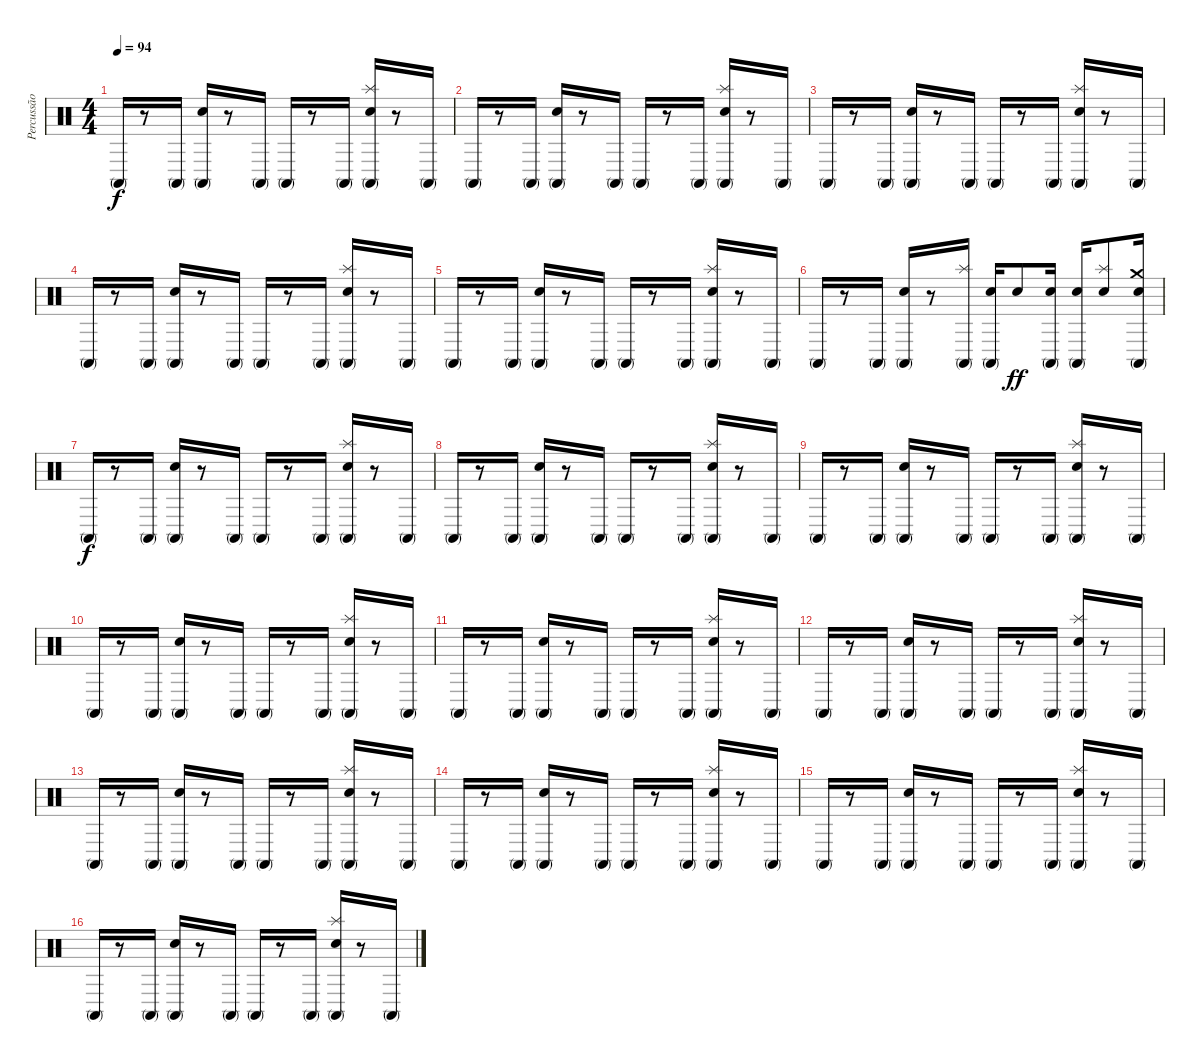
\track ("Percussão" "Percussão") {instrument percussion}
\staff {score}
\articulation defaults
\ts (4 4)
\tempo 94
\clef neutral
\ks c "Conga high (mute)".16{dy f}
r.8 "Conga high (mute)".16 ("Conga high (mute)" "Hand Clap (hit)").16 r.8 "Conga high (mute)".16 "Conga high (mute)".16 r.8 "Conga high (mute)".16 ("Conga high (mute)" "Splash (hit)" "Hand Clap (hit)").16 r.8 "Conga high (mute)".16 |
"Conga high (mute)".16 r.8 "Conga high (mute)".16 ("Conga high (mute)" "Hand Clap (hit)").16 r.8 "Conga high (mute)".16 "Conga high (mute)".16 r.8 "Conga high (mute)".16 ("Conga high (mute)" "Splash (hit)" "Hand Clap (hit)").16 r.8 "Conga high (mute)".16 |
"Conga high (mute)".16 r.8 "Conga high (mute)".16 ("Conga high (mute)" "Hand Clap (hit)").16 r.8 "Conga high (mute)".16 "Conga high (mute)".16 r.8 "Conga high (mute)".16 ("Conga high (mute)" "Splash (hit)" "Hand Clap (hit)").16 r.8 "Conga high (mute)".16 |
"Conga high (mute)".16 r.8 "Conga high (mute)".16 ("Conga high (mute)" "Hand Clap (hit)").16 r.8 "Conga high (mute)".16 "Conga high (mute)".16 r.8 "Conga high (mute)".16 ("Conga high (mute)" "Splash (hit)" "Hand Clap (hit)").16 r.8 "Conga high (mute)".16 |
"Conga high (mute)".16 r.8 "Conga high (mute)".16 ("Conga high (mute)" "Hand Clap (hit)").16 r.8 "Conga high (mute)".16 "Conga high (mute)".16 r.8 "Conga high (mute)".16 ("Conga high (mute)" "Splash (hit)" "Hand Clap (hit)").16 r.8 "Conga high (mute)".16 |
"Conga high (mute)".16 r.8 "Conga high (mute)".16 ("Conga high (mute)" "Hand Clap (hit)").16 r.8 ("Conga high (mute)" "Splash (hit)").16 ("Conga high (mute)" "Hand Clap (hit)").16 "Hand Clap (hit)".8{dy ff} ("Conga high (mute)" "Snare (hit) 2").16 ("Conga high (mute)" "Hand Clap (hit)").16 ("Splash (hit)" "Snare (hit) 2").8 ("Conga high (mute)" "Crash medium (hit)" "Hand Clap (hit)").16 |
"Conga high (mute)".16{dy f} r.8 "Conga high (mute)".16 ("Conga high (mute)" "Hand Clap (hit)").16 r.8 "Conga high (mute)".16 "Conga high (mute)".16 r.8 "Conga high (mute)".16 ("Conga high (mute)" "Splash (hit)" "Hand Clap (hit)").16 r.8 "Conga high (mute)".16 |
"Conga high (mute)".16 r.8 "Conga high (mute)".16 ("Conga high (mute)" "Hand Clap (hit)").16 r.8 "Conga high (mute)".16 "Conga high (mute)".16 r.8 "Conga high (mute)".16 ("Conga high (mute)" "Splash (hit)" "Hand Clap (hit)").16 r.8 "Conga high (mute)".16 |
"Conga high (mute)".16 r.8 "Conga high (mute)".16 ("Conga high (mute)" "Hand Clap (hit)").16 r.8 "Conga high (mute)".16 "Conga high (mute)".16 r.8 "Conga high (mute)".16 ("Conga high (mute)" "Splash (hit)" "Hand Clap (hit)").16 r.8 "Conga high (mute)".16 |
"Conga high (mute)".16 r.8 "Conga high (mute)".16 ("Conga high (mute)" "Hand Clap (hit)").16 r.8 "Conga high (mute)".16 "Conga high (mute)".16 r.8 "Conga high (mute)".16 ("Conga high (mute)" "Splash (hit)" "Hand Clap (hit)").16 r.8 "Conga high (mute)".16 |
"Conga high (mute)".16 r.8 "Conga high (mute)".16 ("Conga high (mute)" "Hand Clap (hit)").16 r.8 "Conga high (mute)".16 "Conga high (mute)".16 r.8 "Conga high (mute)".16 ("Conga high (mute)" "Splash (hit)" "Hand Clap (hit)").16 r.8 "Conga high (mute)".16 |
"Conga high (mute)".16 r.8 "Conga high (mute)".16 ("Conga high (mute)" "Hand Clap (hit)").16 r.8 "Conga high (mute)".16 "Conga high (mute)".16 r.8 "Conga high (mute)".16 ("Conga high (mute)" "Splash (hit)" "Hand Clap (hit)").16 r.8 "Conga high (mute)".16 |
"Conga high (mute)".16 r.8 "Conga high (mute)".16 ("Conga high (mute)" "Hand Clap (hit)").16 r.8 "Conga high (mute)".16 "Conga high (mute)".16 r.8 "Conga high (mute)".16 ("Conga high (mute)" "Splash (hit)" "Hand Clap (hit)").16 r.8 "Conga high (mute)".16 |
"Conga high (mute)".16 r.8 "Conga high (mute)".16 ("Conga high (mute)" "Hand Clap (hit)").16 r.8 "Conga high (mute)".16 "Conga high (mute)".16 r.8 "Conga high (mute)".16 ("Conga high (mute)" "Splash (hit)" "Hand Clap (hit)").16 r.8 "Conga high (mute)".16 |
"Conga high (mute)".16 r.8 "Conga high (mute)".16 ("Conga high (mute)" "Hand Clap (hit)").16 r.8 "Conga high (mute)".16 "Conga high (mute)".16 r.8 "Conga high (mute)".16 ("Conga high (mute)" "Splash (hit)" "Hand Clap (hit)").16 r.8 "Conga high (mute)".16 |
"Conga high (mute)".16 r.8 "Conga high (mute)".16 ("Conga high (mute)" "Hand Clap (hit)").16 r.8 "Conga high (mute)".16 "Conga high (mute)".16 r.8 "Conga high (mute)".16 ("Conga high (mute)" "Splash (hit)" "Hand Clap (hit)").16 r.8 "Conga high (mute)".16
